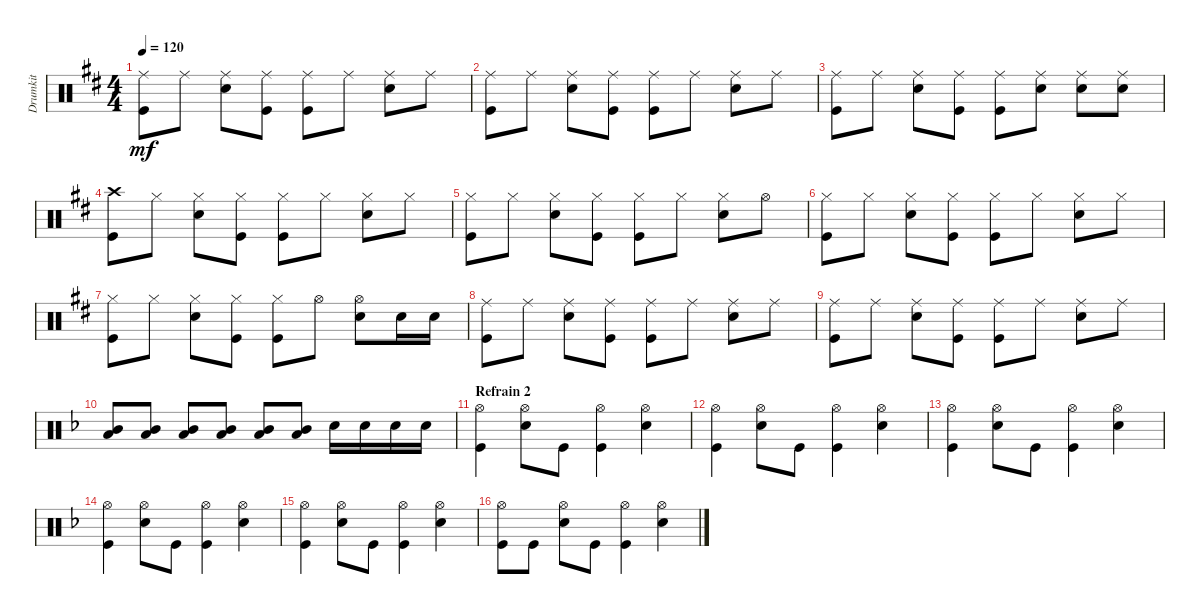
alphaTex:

\track ("Drumkit" "Drumkit") {instrument percussion}
\staff {score}
\articulation defaults
\ts (4 4)
\tempo 120
\clef neutral
\ks d
("Kick (hit)" "Ride (middle)").8{dy mf} "Ride (middle)".8 ("Snare (hit) 2" "Ride (middle)").8 ("Kick (hit)" "Ride (middle)").8 ("Kick (hit)" "Ride (middle)").8 "Ride (middle)".8 ("Snare (hit) 2" "Ride (middle)").8 "Ride (middle)".8 |
("Kick (hit)" "Ride (middle)").8 "Ride (middle)".8 ("Snare (hit) 2" "Ride (middle)").8 ("Kick (hit)" "Ride (middle)").8 ("Kick (hit)" "Ride (middle)").8 "Ride (middle)".8 ("Snare (hit) 2" "Ride (middle)").8 "Ride (middle)".8 |
("Kick (hit)" "Ride (middle)").8 "Ride (middle)".8 ("Snare (hit) 2" "Ride (middle)").8 ("Kick (hit)" "Ride (middle)").8 ("Kick (hit)" "Ride (middle)").8 ("Ride (middle)" "Snare (hit) 2").8 ("Snare (hit) 2" "Ride (middle)").8 ("Ride (middle)" "Snare (hit) 2").8 |
("Kick (hit)" "Crash high (hit)").8 "Hi-Hat (closed)".8 ("Hi-Hat (closed)" "Snare (hit) 2").8 ("Hi-Hat (closed)" "Kick (hit)").8 ("Hi-Hat (closed)" "Kick (hit)").8 "Hi-Hat (closed)".8 ("Hi-Hat (closed)" "Snare (hit) 2").8 "Hi-Hat (closed)".8 |
("Kick (hit)" "Hi-Hat (closed)").8 "Hi-Hat (closed)".8 ("Hi-Hat (closed)" "Snare (hit) 2").8 ("Hi-Hat (closed)" "Kick (hit)").8 ("Hi-Hat (closed)" "Kick (hit)").8 "Hi-Hat (closed)".8 ("Hi-Hat (closed)" "Snare (hit) 2").8 "Hi-Hat (open)".8 |
("Kick (hit)" "Hi-Hat (closed)").8 "Hi-Hat (closed)".8 ("Hi-Hat (closed)" "Snare (hit) 2").8 ("Hi-Hat (closed)" "Kick (hit)").8 ("Hi-Hat (closed)" "Kick (hit)").8 "Hi-Hat (closed)".8 ("Hi-Hat (closed)" "Snare (hit) 2").8 "Hi-Hat (closed)".8 |
("Kick (hit)" "Hi-Hat (closed)").8 "Hi-Hat (closed)".8 ("Hi-Hat (closed)" "Snare (hit) 2").8 ("Hi-Hat (closed)" "Kick (hit)").8 ("Hi-Hat (closed)" "Kick (hit)").8 "Hi-Hat (open)".8 ("Hi-Hat (open)" "Snare (hit) 2").8 "Snare (hit) 2".16 "Snare (hit) 2".16 |
("Kick (hit)" "Ride (middle)").8 "Ride (middle)".8 ("Snare (hit) 2" "Ride (middle)").8 ("Kick (hit)" "Ride (middle)").8 ("Kick (hit)" "Ride (middle)").8 "Ride (middle)".8 ("Snare (hit) 2" "Ride (middle)").8 "Ride (middle)".8 |
("Kick (hit)" "Ride (middle)").8 "Ride (middle)".8 ("Snare (hit) 2" "Ride (middle)").8 ("Kick (hit)" "Ride (middle)").8 ("Kick (hit)" "Ride (middle)").8 "Ride (middle)".8 ("Snare (hit) 2" "Ride (middle)").8 "Ride (middle)".8 |
\ks f
("Low Tom (hit)" "Mid Tom (hit)").8 ("Low Tom (hit)" "Mid Tom (hit)").8 ("Low Tom (hit)" "Mid Tom (hit)").8 ("Low Tom (hit)" "Mid Tom (hit)").8 ("Low Tom (hit)" "Mid Tom (hit)").8 ("Low Tom (hit)" "Mid Tom (hit)").8 "Snare (hit) 2".16 "Snare (hit) 2".16 "Snare (hit) 2".16 "Snare (hit) 2".16 |
\section ("" "Refrain 2")
("Kick (hit)" "Hi-Hat (open)").4 ("Hi-Hat (open)" "Snare (hit) 2").8 "Kick (hit)".8 ("Hi-Hat (open)" "Kick (hit)").4 ("Snare (hit) 2" "Hi-Hat (open)").4 |
("Kick (hit)" "Hi-Hat (open)").4 ("Hi-Hat (open)" "Snare (hit) 2").8 "Kick (hit)".8 ("Hi-Hat (open)" "Kick (hit)").4 ("Snare (hit) 2" "Hi-Hat (open)").4 |
("Kick (hit)" "Hi-Hat (open)").4 ("Hi-Hat (open)" "Snare (hit) 2").8 "Kick (hit)".8 ("Hi-Hat (open)" "Kick (hit)").4 ("Snare (hit) 2" "Hi-Hat (open)").4 |
("Kick (hit)" "Hi-Hat (open)").4 ("Hi-Hat (open)" "Snare (hit) 2").8 "Kick (hit)".8 ("Hi-Hat (open)" "Kick (hit)").4 ("Snare (hit) 2" "Hi-Hat (open)").4 |
("Kick (hit)" "Hi-Hat (open)").4 ("Hi-Hat (open)" "Snare (hit) 2").8 "Kick (hit)".8 ("Hi-Hat (open)" "Kick (hit)").4 ("Snare (hit) 2" "Hi-Hat (open)").4 |
("Kick (hit)" "Hi-Hat (open)").8 "Kick (hit)".8 ("Hi-Hat (open)" "Snare (hit) 2").8 "Kick (hit)".8 ("Hi-Hat (open)" "Kick (hit)").4 ("Snare (hit) 2" "Hi-Hat (open)").4
